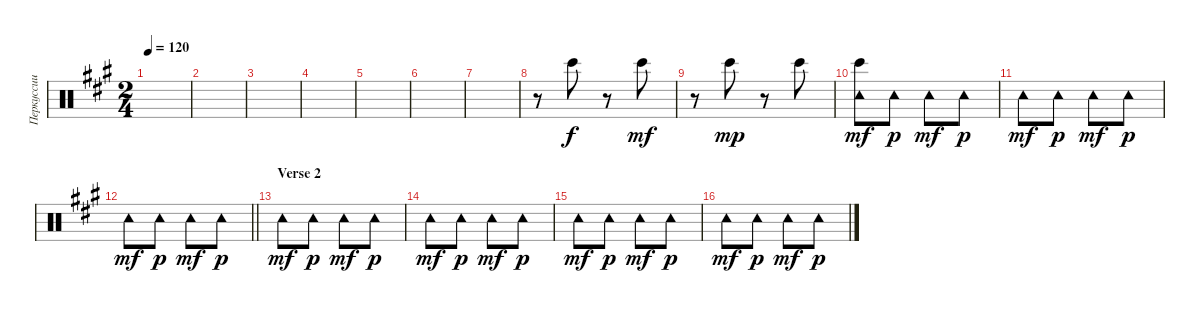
\track ("Перкуссии" "Перкуссии") {instrument percussion}
\staff {score}
\articulation defaults
\ts (2 4)
\tempo 120
\clef neutral
\ks f#minor
|
|
|
|
|
|
|
r.8 "Bongo High (hit)".8 r.8 "Bongo High (hit)".8{dy mf} |
r.8 "Bongo High (hit)".8{dy mp} r.8 "Bongo High (hit)".8 |
("Bongo High (hit)" "Tambourine (hit)").8{dy mf} "Tambourine (hit)".8{dy p} "Tambourine (hit)".8{dy mf} "Tambourine (hit)".8{dy p} |
"Tambourine (hit)".8{dy mf} "Tambourine (hit)".8{dy p} "Tambourine (hit)".8{dy mf} "Tambourine (hit)".8{dy p} |
\barLineRight lightlight "Tambourine (hit)".8{dy mf} "Tambourine (hit)".8{dy p} "Tambourine (hit)".8{dy mf} "Tambourine (hit)".8{dy p}
|
\section ("" "Verse 2")
"Tambourine (hit)".8{dy mf} "Tambourine (hit)".8{dy p} "Tambourine (hit)".8{dy mf} "Tambourine (hit)".8{dy p} |
"Tambourine (hit)".8{dy mf} "Tambourine (hit)".8{dy p} "Tambourine (hit)".8{dy mf} "Tambourine (hit)".8{dy p} |
"Tambourine (hit)".8{dy mf} "Tambourine (hit)".8{dy p} "Tambourine (hit)".8{dy mf} "Tambourine (hit)".8{dy p} |
"Tambourine (hit)".8{dy mf} "Tambourine (hit)".8{dy p} "Tambourine (hit)".8{dy mf} "Tambourine (hit)".8{dy p}
